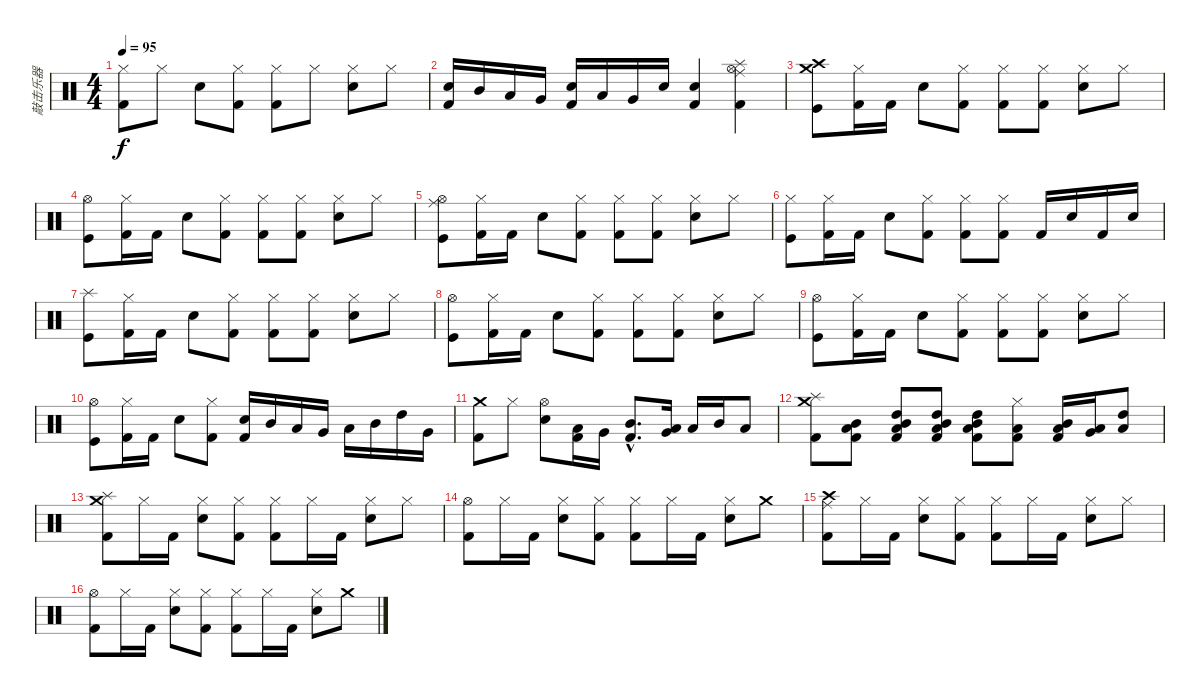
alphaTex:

\track ("敲击乐器" "敲击乐器") {instrument percussion}
\staff {score}
\articulation defaults
\ts (4 4)
\tempo 95
\clef neutral
\ks c
("Hi-Hat (closed)" "Kick (hit) 2").8{dy f} "Hi-Hat (closed)".8 "Electric Snare (hit)".8 ("Hi-Hat (closed)" "Kick (hit) 2").8 ("Hi-Hat (closed)" "Kick (hit) 2").8 "Hi-Hat (closed)".8 ("Hi-Hat (closed)" "Electric Snare (hit)").8 "Hi-Hat (closed)".8 |
("Electric Snare (hit)" "Kick (hit) 2").16 "Mid Tom (hit)".16 "Low Tom (hit)".16 "Very Low Tom (hit)".16 ("Electric Snare (hit)" "Kick (hit) 2").16 "Low Tom (hit)".16 "Very Low Tom (hit)".16 "Electric Snare (hit)".16 ("Electric Snare (hit)" "Kick (hit) 2").4 ("Splash (hit)" "Ride (middle)" "Hi-Hat (open)" "Kick (hit) 2").4 |
("Crash medium (hit)" "Crash high (hit)" "Kick (hit)").8 ("Hi-Hat (closed)" "Kick (hit) 2").16 "Kick (hit) 2".16 "Electric Snare (hit)".8 ("Hi-Hat (closed)" "Kick (hit) 2").8 ("Hi-Hat (closed)" "Kick (hit) 2").8 ("Hi-Hat (closed)" "Kick (hit) 2").8 ("Hi-Hat (closed)" "Electric Snare (hit)").8 "Hi-Hat (closed)".8 |
("Hi-Hat (open)" "Kick (hit)").8 ("Hi-Hat (closed)" "Kick (hit) 2").16 "Kick (hit) 2".16 "Electric Snare (hit)".8 ("Hi-Hat (closed)" "Kick (hit) 2").8 ("Hi-Hat (closed)" "Kick (hit) 2").8 ("Hi-Hat (closed)" "Kick (hit) 2").8 ("Hi-Hat (closed)" "Electric Snare (hit)").8 "Hi-Hat (closed)".8 |
("Ride (middle)" "Hi-Hat (open)" "Kick (hit)").8 ("Hi-Hat (closed)" "Kick (hit) 2").16 "Kick (hit) 2".16 "Electric Snare (hit)".8 ("Hi-Hat (closed)" "Kick (hit) 2").8 ("Hi-Hat (closed)" "Kick (hit) 2").8 ("Hi-Hat (closed)" "Kick (hit) 2").8 ("Hi-Hat (closed)" "Electric Snare (hit)").8 "Hi-Hat (closed)".8 |
("Hi-Hat (closed)" "Kick (hit)").8 ("Hi-Hat (closed)" "Kick (hit) 2").16 "Kick (hit) 2".16 "Electric Snare (hit)".8 ("Hi-Hat (closed)" "Kick (hit) 2").8 ("Hi-Hat (closed)" "Kick (hit) 2").8 ("Hi-Hat (closed)" "Kick (hit) 2").8 "Kick (hit) 2".16 "Electric Snare (hit)".16 "Kick (hit) 2".16 "Electric Snare (hit)".16 |
("Splash (hit)" "Kick (hit)").8 ("Hi-Hat (closed)" "Kick (hit) 2").16 "Kick (hit) 2".16 "Electric Snare (hit)".8 ("Hi-Hat (closed)" "Kick (hit) 2").8 ("Hi-Hat (closed)" "Kick (hit) 2").8 ("Hi-Hat (closed)" "Kick (hit) 2").8 ("Hi-Hat (closed)" "Electric Snare (hit)").8 "Hi-Hat (closed)".8 |
("Hi-Hat (open)" "Kick (hit)").8 ("Hi-Hat (closed)" "Kick (hit) 2").16 "Kick (hit) 2".16 "Electric Snare (hit)".8 ("Hi-Hat (closed)" "Kick (hit) 2").8 ("Hi-Hat (closed)" "Kick (hit) 2").8 ("Hi-Hat (closed)" "Kick (hit) 2").8 ("Hi-Hat (closed)" "Electric Snare (hit)").8 "Hi-Hat (closed)".8 |
("Hi-Hat (open)" "Kick (hit)").8 ("Hi-Hat (closed)" "Kick (hit) 2").16 "Kick (hit) 2".16 "Electric Snare (hit)".8 ("Hi-Hat (closed)" "Kick (hit) 2").8 ("Hi-Hat (closed)" "Kick (hit) 2").8 ("Hi-Hat (closed)" "Kick (hit) 2").8 ("Hi-Hat (closed)" "Electric Snare (hit)").8 "Hi-Hat (closed)".8 |
("Hi-Hat (open)" "Kick (hit)").8 ("Hi-Hat (closed)" "Kick (hit) 2").16 "Kick (hit) 2".16 "Electric Snare (hit)".8 ("Hi-Hat (closed)" "Kick (hit) 2").8 ("Electric Snare (hit)" "Kick (hit) 2").16 "Mid Tom (hit)".16 "Low Tom (hit)".16 "Very Low Tom (hit)".16 "Low Tom (hit)".16 "Mid Tom (hit)".16 "High Tom (hit)".16 "Very Low Tom (hit)".16 |
("Crash medium (hit)" "Kick (hit) 2").8 "Hi-Hat (closed)".8 ("Hi-Hat (open)" "Electric Snare (hit)").8 ("Low Tom (hit)" "Kick (hit) 2").16 "Very Low Tom (hit)".16 ("Mid Tom (hit)"{hac} "Kick (hit) 2"{hac}).8{d} ("Very Low Tom (hit)" "Low Tom (hit)").16 "Low Tom (hit)".16 "Mid Tom (hit)".16 "Low Floor Tom (hit)".8 |
("Splash (hit)" "Crash medium (hit)" "Kick (hit) 2").8 ("Mid Tom (hit)" "Low Tom (hit)" "Kick (hit) 2").8 ("Mid Tom (hit)" "High Tom (hit)" "Low Tom (hit)" "Kick (hit) 2").8 ("Mid Tom (hit)" "High Tom (hit)" "Low Tom (hit)" "Kick (hit) 2").8 ("Mid Tom (hit)" "High Tom (hit)" "Low Tom (hit)" "Kick (hit) 2").8 ("Hi-Hat (closed)" "Low Tom (hit)" "Kick (hit) 2").8 ("Mid Tom (hit)" "Low Tom (hit)" "Kick (hit) 2").16 ("Low Tom (hit)" "Very Low Tom (hit)").16 ("High Tom (hit)" "Low Floor Tom (hit)").8 |
("Splash (hit)" "Crash medium (hit)" "Kick (hit) 2").8 "Hi-Hat (closed)".16 "Kick (hit) 2".16 ("Hi-Hat (closed)" "Electric Snare (hit)").8 ("Hi-Hat (closed)" "Kick (hit) 2").8 ("Hi-Hat (closed)" "Kick (hit) 2").8 "Hi-Hat (closed)".16 "Kick (hit) 2".16 ("Hi-Hat (closed)" "Electric Snare (hit)").8 "Hi-Hat (closed)".8 |
("Hi-Hat (open)" "Kick (hit) 2").8 "Hi-Hat (closed)".16 "Kick (hit) 2".16 ("Hi-Hat (closed)" "Electric Snare (hit)").8 ("Hi-Hat (closed)" "Kick (hit) 2").8 ("Hi-Hat (closed)" "Kick (hit) 2").8 "Hi-Hat (closed)".16 "Kick (hit) 2".16 ("Hi-Hat (closed)" "Electric Snare (hit)").8 "Crash medium (hit)".8 |
("Ride (middle)" "Crash high (hit)" "Kick (hit) 2").8 "Hi-Hat (closed)".16 "Kick (hit) 2".16 ("Hi-Hat (closed)" "Electric Snare (hit)").8 ("Hi-Hat (closed)" "Kick (hit) 2").8 ("Hi-Hat (closed)" "Kick (hit) 2").8 "Hi-Hat (closed)".16 "Kick (hit) 2".16 ("Hi-Hat (closed)" "Electric Snare (hit)").8 "Hi-Hat (closed)".8 |
("Hi-Hat (open)" "Kick (hit) 2").8 "Hi-Hat (closed)".16 "Kick (hit) 2".16 ("Hi-Hat (closed)" "Electric Snare (hit)").8 ("Hi-Hat (closed)" "Kick (hit) 2").8 ("Hi-Hat (closed)" "Kick (hit) 2").8 "Hi-Hat (closed)".16 "Kick (hit) 2".16 ("Hi-Hat (closed)" "Electric Snare (hit)").8 "Crash medium (hit)".8
